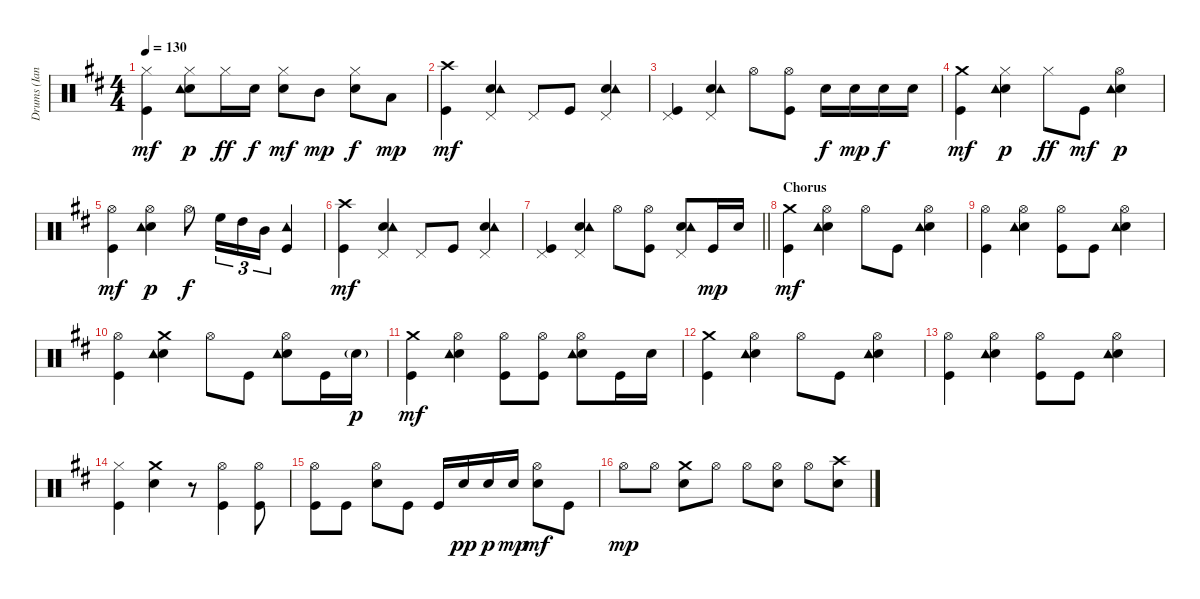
\track ("Drums (Ian Paice)" "Drums (Ian") {instrument percussion}
\staff {score}
\articulation defaults
\ts (4 4)
\tempo 130
\clef neutral
\ks bminor
("Hi-Hat (closed)" "Kick (hit)").4{dy mf} ("Hi-Hat (closed)" "Electric Snare (hit)" "Tambourine (hit)").8{dy p} "Hi-Hat (closed)".16{dy ff} "Electric Snare (hit)".16{dy f} ("Hi-Hat (closed)" "Electric Snare (hit)").8{dy mf} "Mid Tom (hit)".8{dy mp} ("Hi-Hat (closed)" "Electric Snare (hit)").8{dy f} "Low Tom (hit)".8{dy mp} |
("Crash high (hit)" "Kick (hit)").4{dy mf} ("Pedal Hi-Hat (hit)" "Electric Snare (hit)" "Tambourine (hit)").4 "Pedal Hi-Hat (hit)".8 "Kick (hit)".8 ("Pedal Hi-Hat (hit)" "Electric Snare (hit)" "Tambourine (hit)").4 |
("Pedal Hi-Hat (hit)" "Kick (hit)").4 ("Pedal Hi-Hat (hit)" "Electric Snare (hit)" "Tambourine (hit)").4 "Hi-Hat (open)".8 ("Hi-Hat (open)" "Kick (hit)").8 "Electric Snare (hit)".16{dy f} "Electric Snare (hit)".16{dy mp} "Electric Snare (hit)".16{dy f} "Electric Snare (hit)".16 |
("Crash medium (hit)" "Kick (hit)").4{dy mf} ("Hi-Hat (closed)" "Electric Snare (hit)" "Tambourine (hit)").4{dy p} "Hi-Hat (closed)".8{dy ff} "Kick (hit)".8{dy mf} ("Hi-Hat (open)" "Electric Snare (hit)" "Tambourine (hit)").4{dy p} |
("Hi-Hat (open)" "Kick (hit)").4{dy mf} ("Hi-Hat (open)" "Electric Snare (hit)" "Tambourine (hit)").4{dy p} "Hi-Hat (open)".8{dy f} "High Floor Tom (hit)".16{tu (3 2)} "High Tom (hit)".16{tu (3 2)} "Mid Tom (hit)".16{tu (3 2)} ("Tambourine (hit)" "Kick (hit)").4 |
("Crash high (hit)" "Kick (hit)").4{dy mf} ("Pedal Hi-Hat (hit)" "Electric Snare (hit)" "Tambourine (hit)").4 "Pedal Hi-Hat (hit)".8 "Kick (hit)".8 ("Pedal Hi-Hat (hit)" "Electric Snare (hit)" "Tambourine (hit)").4 |
\barLineRight lightlight
("Pedal Hi-Hat (hit)" "Kick (hit)").4 ("Pedal Hi-Hat (hit)" "Electric Snare (hit)" "Tambourine (hit)").4 "Hi-Hat (open)".8 ("Hi-Hat (open)" "Kick (hit)").8 ("Pedal Hi-Hat (hit)" "Electric Snare (hit)" "Tambourine (hit)").8 "Kick (hit)".16{dy mp} "Electric Snare (hit)".16 |
\section ("" "Chorus")
("Crash medium (hit)" "Kick (hit)").4{dy mf} ("Hi-Hat (open)" "Electric Snare (hit)" "Tambourine (hit)").4 "Hi-Hat (open)".8 "Kick (hit)".8 ("Hi-Hat (open)" "Electric Snare (hit)" "Tambourine (hit)").4 |
("Hi-Hat (open)" "Kick (hit)").4 ("Hi-Hat (open)" "Electric Snare (hit)" "Tambourine (hit)").4 ("Hi-Hat (open)" "Kick (hit)").8 "Kick (hit)".8 ("Hi-Hat (open)" "Electric Snare (hit)" "Tambourine (hit)").4 |
("Hi-Hat (open)" "Kick (hit)").4 ("Crash medium (hit)" "Electric Snare (hit)" "Tambourine (hit)").4 "Hi-Hat (open)".8 "Kick (hit)".8 ("Hi-Hat (open)" "Electric Snare (hit)" "Tambourine (hit)").8 "Kick (hit)".16 "Electric Snare (hit)"{g}.16{dy p} |
("Crash medium (hit)" "Kick (hit)").4{dy mf} ("Hi-Hat (open)" "Electric Snare (hit)" "Tambourine (hit)").4 ("Hi-Hat (open)" "Kick (hit)").8 ("Hi-Hat (open)" "Kick (hit)").8 ("Hi-Hat (open)" "Electric Snare (hit)" "Tambourine (hit)").8 "Kick (hit)".16 "Electric Snare (hit)".16 |
("Crash medium (hit)" "Kick (hit)").4 ("Hi-Hat (open)" "Electric Snare (hit)" "Tambourine (hit)").4 "Hi-Hat (open)".8 "Kick (hit)".8 ("Hi-Hat (open)" "Electric Snare (hit)" "Tambourine (hit)").4 |
("Hi-Hat (open)" "Kick (hit)").4 ("Hi-Hat (open)" "Electric Snare (hit)" "Tambourine (hit)").4 ("Hi-Hat (open)" "Kick (hit)").8 "Kick (hit)".8 ("Hi-Hat (open)" "Electric Snare (hit)" "Tambourine (hit)").4 |
("Hi-Hat (closed)" "Kick (hit)").4 ("Crash medium (hit)" "Electric Snare (hit)").4 r.8 ("Hi-Hat (open)" "Kick (hit)").4 ("Hi-Hat (open)" "Kick (hit)").8 |
("Hi-Hat (open)" "Kick (hit)").8 "Kick (hit)".8 ("Hi-Hat (open)" "Electric Snare (hit)").8 "Kick (hit)".8 "Kick (hit)".16 "Electric Snare (hit)".16{dy pp} "Electric Snare (hit)".16{dy p} "Electric Snare (hit)".16{dy mp} ("Hi-Hat (open)" "Electric Snare (hit)").8{dy mf} "Kick (hit)".8 |
"Hi-Hat (open)".8{dy mp} "Hi-Hat (open)".8 ("Crash medium (hit)" "Electric Snare (hit)").8 "Hi-Hat (open)".8 "Hi-Hat (open)".8 ("Hi-Hat (open)" "Electric Snare (hit)").8 "Hi-Hat (open)".8 ("Crash high (hit)" "Electric Snare (hit)").8
